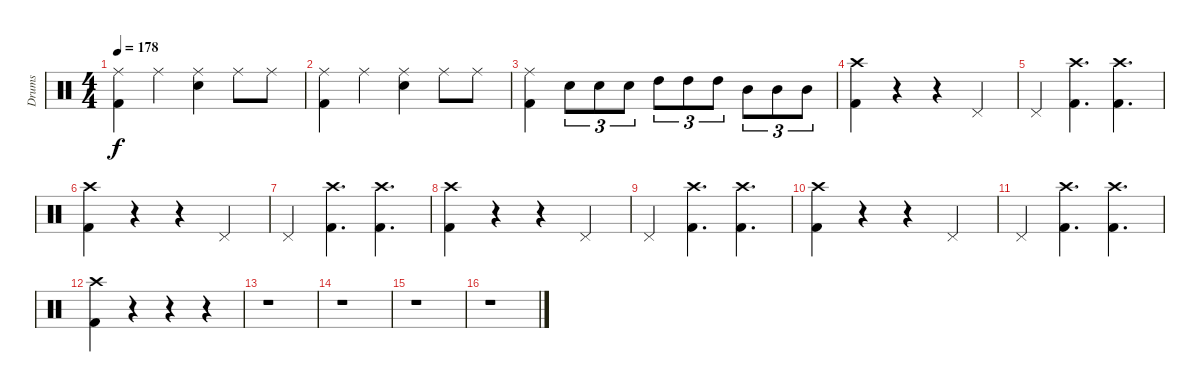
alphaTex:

\track ("Drums" "Drums") {mute instrument percussion}
\staff {score}
\articulation defaults
\ts (4 4)
\tempo 178
\clef neutral
\ks c
("Ride (middle)" "Kick (hit) 2").4{dy f} "Ride (middle)".4 ("Ride (middle)" "Electric Snare (hit)").4 "Ride (middle)".8 "Ride (middle)".8 |
("Ride (middle)" "Kick (hit) 2").4 "Ride (middle)".4 ("Ride (middle)" "Electric Snare (hit)").4 "Ride (middle)".8 "Ride (middle)".8 |
("Ride (middle)" "Kick (hit) 2").4 "Electric Snare (hit)".8{tu (3 2)} "Electric Snare (hit)".8{tu (3 2)} "Electric Snare (hit)".8{tu (3 2)} "High Tom (hit)".8{tu (3 2)} "High Tom (hit)".8{tu (3 2)} "High Tom (hit)".8{tu (3 2)} "Mid Tom (hit)".8{tu (3 2)} "Mid Tom (hit)".8{tu (3 2)} "Mid Tom (hit)".8{tu (3 2)} |
("Crash high (hit)" "Kick (hit) 2").4 r.4 r.4 "Pedal Hi-Hat (hit)".4 |
"Pedal Hi-Hat (hit)".4 ("Crash high (hit)" "Kick (hit) 2").4{d} ("Crash high (hit)" "Kick (hit) 2").4{d} |
("Crash high (hit)" "Kick (hit) 2").4 r.4 r.4 "Pedal Hi-Hat (hit)".4 |
"Pedal Hi-Hat (hit)".4 ("Crash high (hit)" "Kick (hit) 2").4{d} ("Crash high (hit)" "Kick (hit) 2").4{d} |
("Crash high (hit)" "Kick (hit) 2").4 r.4 r.4 "Pedal Hi-Hat (hit)".4 |
"Pedal Hi-Hat (hit)".4 ("Crash high (hit)" "Kick (hit) 2").4{d} ("Crash high (hit)" "Kick (hit) 2").4{d} |
("Crash high (hit)" "Kick (hit) 2").4 r.4 r.4 "Pedal Hi-Hat (hit)".4 |
"Pedal Hi-Hat (hit)".4 ("Crash high (hit)" "Kick (hit) 2").4{d} ("Crash high (hit)" "Kick (hit) 2").4{d} |
("Crash high (hit)" "Kick (hit) 2").4 r.4 r.4 r.4 |
r.1 |
r.1 |
r.1 |
r.1
